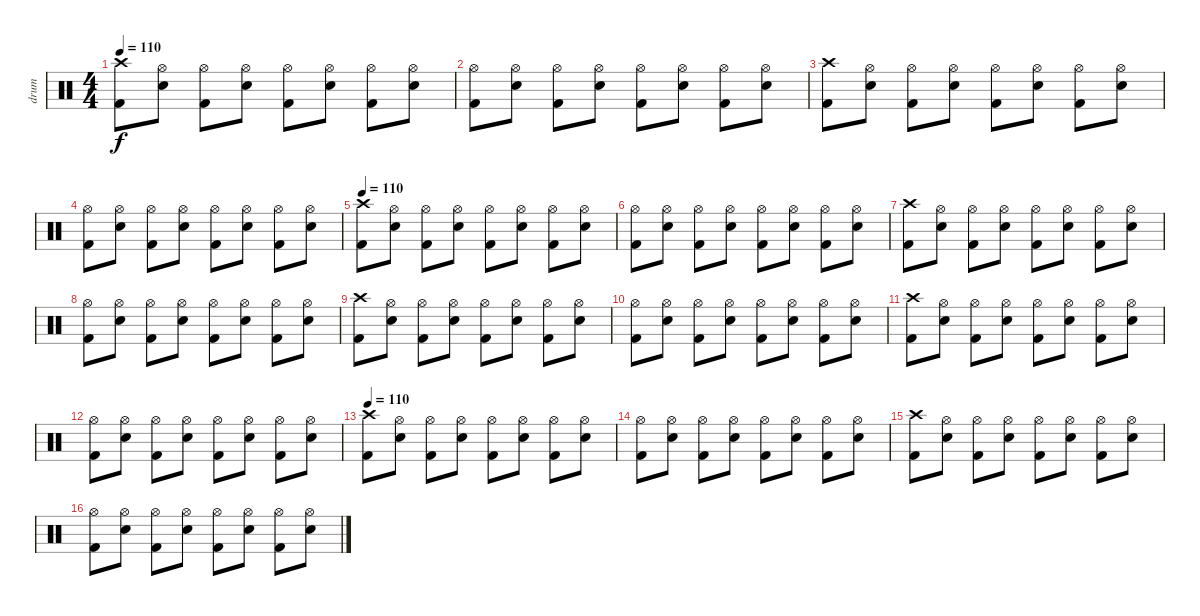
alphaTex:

\track ("drum" "drum") {instrument percussion}
\staff {score}
\articulation defaults
\ts (4 4)
\tempo 110
\clef neutral
\ks c
("Crash high (hit)" "Kick (hit) 2").8{dy f} ("Hi-Hat (open)" "Electric Snare (hit)").8 ("Hi-Hat (open)" "Kick (hit) 2").8 ("Hi-Hat (open)" "Electric Snare (hit)").8 ("Hi-Hat (open)" "Kick (hit) 2").8 ("Hi-Hat (open)" "Electric Snare (hit)").8 ("Hi-Hat (open)" "Kick (hit) 2").8 ("Hi-Hat (open)" "Electric Snare (hit)").8 |
("Hi-Hat (open)" "Kick (hit) 2").8 ("Hi-Hat (open)" "Electric Snare (hit)").8 ("Hi-Hat (open)" "Kick (hit) 2").8 ("Hi-Hat (open)" "Electric Snare (hit)").8 ("Hi-Hat (open)" "Kick (hit) 2").8 ("Hi-Hat (open)" "Electric Snare (hit)").8 ("Hi-Hat (open)" "Kick (hit) 2").8 ("Hi-Hat (open)" "Electric Snare (hit)").8 |
("Crash high (hit)" "Kick (hit) 2").8 ("Hi-Hat (open)" "Electric Snare (hit)").8 ("Hi-Hat (open)" "Kick (hit) 2").8 ("Hi-Hat (open)" "Electric Snare (hit)").8 ("Hi-Hat (open)" "Kick (hit) 2").8 ("Hi-Hat (open)" "Electric Snare (hit)").8 ("Hi-Hat (open)" "Kick (hit) 2").8 ("Hi-Hat (open)" "Electric Snare (hit)").8 |
("Hi-Hat (open)" "Kick (hit) 2").8 ("Hi-Hat (open)" "Electric Snare (hit)").8 ("Hi-Hat (open)" "Kick (hit) 2").8 ("Hi-Hat (open)" "Electric Snare (hit)").8 ("Hi-Hat (open)" "Kick (hit) 2").8 ("Hi-Hat (open)" "Electric Snare (hit)").8 ("Hi-Hat (open)" "Kick (hit) 2").8 ("Hi-Hat (open)" "Electric Snare (hit)").8 |
\tempo 110
("Crash high (hit)" "Kick (hit) 2").8 ("Hi-Hat (open)" "Electric Snare (hit)").8 ("Hi-Hat (open)" "Kick (hit) 2").8 ("Hi-Hat (open)" "Electric Snare (hit)").8 ("Hi-Hat (open)" "Kick (hit) 2").8 ("Hi-Hat (open)" "Electric Snare (hit)").8 ("Hi-Hat (open)" "Kick (hit) 2").8 ("Hi-Hat (open)" "Electric Snare (hit)").8 |
("Hi-Hat (open)" "Kick (hit) 2").8 ("Hi-Hat (open)" "Electric Snare (hit)").8 ("Hi-Hat (open)" "Kick (hit) 2").8 ("Hi-Hat (open)" "Electric Snare (hit)").8 ("Hi-Hat (open)" "Kick (hit) 2").8 ("Hi-Hat (open)" "Electric Snare (hit)").8 ("Hi-Hat (open)" "Kick (hit) 2").8 ("Hi-Hat (open)" "Electric Snare (hit)").8 |
("Crash high (hit)" "Kick (hit) 2").8 ("Hi-Hat (open)" "Electric Snare (hit)").8 ("Hi-Hat (open)" "Kick (hit) 2").8 ("Hi-Hat (open)" "Electric Snare (hit)").8 ("Hi-Hat (open)" "Kick (hit) 2").8 ("Hi-Hat (open)" "Electric Snare (hit)").8 ("Hi-Hat (open)" "Kick (hit) 2").8 ("Hi-Hat (open)" "Electric Snare (hit)").8 |
("Hi-Hat (open)" "Kick (hit) 2").8 ("Hi-Hat (open)" "Electric Snare (hit)").8 ("Hi-Hat (open)" "Kick (hit) 2").8 ("Hi-Hat (open)" "Electric Snare (hit)").8 ("Hi-Hat (open)" "Kick (hit) 2").8 ("Hi-Hat (open)" "Electric Snare (hit)").8 ("Hi-Hat (open)" "Kick (hit) 2").8 ("Hi-Hat (open)" "Electric Snare (hit)").8 |
("Crash high (hit)" "Kick (hit) 2").8 ("Hi-Hat (open)" "Electric Snare (hit)").8 ("Hi-Hat (open)" "Kick (hit) 2").8 ("Hi-Hat (open)" "Electric Snare (hit)").8 ("Hi-Hat (open)" "Kick (hit) 2").8 ("Hi-Hat (open)" "Electric Snare (hit)").8 ("Hi-Hat (open)" "Kick (hit) 2").8 ("Hi-Hat (open)" "Electric Snare (hit)").8 |
("Hi-Hat (open)" "Kick (hit) 2").8 ("Hi-Hat (open)" "Electric Snare (hit)").8 ("Hi-Hat (open)" "Kick (hit) 2").8 ("Hi-Hat (open)" "Electric Snare (hit)").8 ("Hi-Hat (open)" "Kick (hit) 2").8 ("Hi-Hat (open)" "Electric Snare (hit)").8 ("Hi-Hat (open)" "Kick (hit) 2").8 ("Hi-Hat (open)" "Electric Snare (hit)").8 |
("Crash high (hit)" "Kick (hit) 2").8 ("Hi-Hat (open)" "Electric Snare (hit)").8 ("Hi-Hat (open)" "Kick (hit) 2").8 ("Hi-Hat (open)" "Electric Snare (hit)").8 ("Hi-Hat (open)" "Kick (hit) 2").8 ("Hi-Hat (open)" "Electric Snare (hit)").8 ("Hi-Hat (open)" "Kick (hit) 2").8 ("Hi-Hat (open)" "Electric Snare (hit)").8 |
("Hi-Hat (open)" "Kick (hit) 2").8 ("Hi-Hat (open)" "Electric Snare (hit)").8 ("Hi-Hat (open)" "Kick (hit) 2").8 ("Hi-Hat (open)" "Electric Snare (hit)").8 ("Hi-Hat (open)" "Kick (hit) 2").8 ("Hi-Hat (open)" "Electric Snare (hit)").8 ("Hi-Hat (open)" "Kick (hit) 2").8 ("Hi-Hat (open)" "Electric Snare (hit)").8 |
\tempo 110
("Crash high (hit)" "Kick (hit) 2").8 ("Hi-Hat (open)" "Electric Snare (hit)").8 ("Hi-Hat (open)" "Kick (hit) 2").8 ("Hi-Hat (open)" "Electric Snare (hit)").8 ("Hi-Hat (open)" "Kick (hit) 2").8 ("Hi-Hat (open)" "Electric Snare (hit)").8 ("Hi-Hat (open)" "Kick (hit) 2").8 ("Hi-Hat (open)" "Electric Snare (hit)").8 |
("Hi-Hat (open)" "Kick (hit) 2").8 ("Hi-Hat (open)" "Electric Snare (hit)").8 ("Hi-Hat (open)" "Kick (hit) 2").8 ("Hi-Hat (open)" "Electric Snare (hit)").8 ("Hi-Hat (open)" "Kick (hit) 2").8 ("Hi-Hat (open)" "Electric Snare (hit)").8 ("Hi-Hat (open)" "Kick (hit) 2").8 ("Hi-Hat (open)" "Electric Snare (hit)").8 |
("Crash high (hit)" "Kick (hit) 2").8 ("Hi-Hat (open)" "Electric Snare (hit)").8 ("Hi-Hat (open)" "Kick (hit) 2").8 ("Hi-Hat (open)" "Electric Snare (hit)").8 ("Hi-Hat (open)" "Kick (hit) 2").8 ("Hi-Hat (open)" "Electric Snare (hit)").8 ("Hi-Hat (open)" "Kick (hit) 2").8 ("Hi-Hat (open)" "Electric Snare (hit)").8 |
("Hi-Hat (open)" "Kick (hit) 2").8 ("Hi-Hat (open)" "Electric Snare (hit)").8 ("Hi-Hat (open)" "Kick (hit) 2").8 ("Hi-Hat (open)" "Electric Snare (hit)").8 ("Hi-Hat (open)" "Kick (hit) 2").8 ("Hi-Hat (open)" "Electric Snare (hit)").8 ("Hi-Hat (open)" "Kick (hit) 2").8 ("Hi-Hat (open)" "Electric Snare (hit)").8
